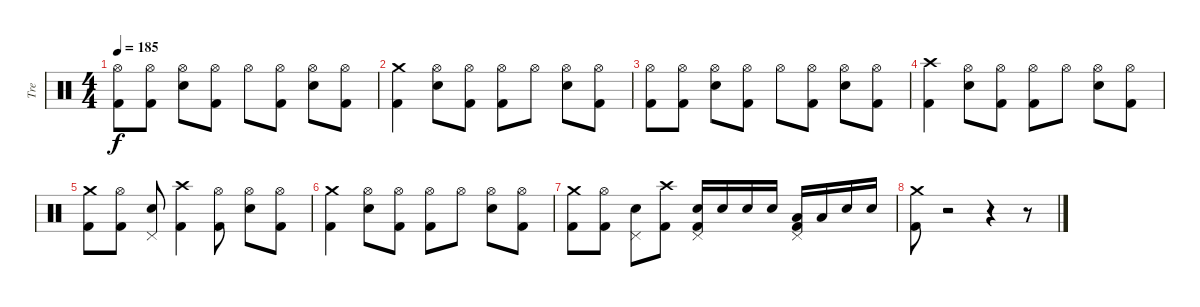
\track ("Tre" "Tre") {instrument percussion}
\staff {score}
\articulation defaults
\ts (4 4)
\tempo 185
\clef neutral
\ks c
("Hi-Hat (open)" "Kick (hit) 2").8{dy f} ("Hi-Hat (open)" "Kick (hit) 2").8 ("Hi-Hat (open)" "Snare (hit) 2").8 ("Hi-Hat (open)" "Kick (hit) 2").8 "Hi-Hat (open)".8 ("Hi-Hat (open)" "Kick (hit) 2").8 ("Hi-Hat (open)" "Snare (hit) 2").8 ("Hi-Hat (open)" "Kick (hit) 2").8 |
("Crash medium (hit)" "Kick (hit) 2").4 ("Hi-Hat (open)" "Snare (hit) 2").8 ("Hi-Hat (open)" "Kick (hit) 2").8 ("Hi-Hat (open)" "Kick (hit) 2").8 "Hi-Hat (open)".8 ("Hi-Hat (open)" "Snare (hit) 2").8 ("Hi-Hat (open)" "Kick (hit) 2").8 |
("Hi-Hat (open)" "Kick (hit) 2").8 ("Hi-Hat (open)" "Kick (hit) 2").8 ("Hi-Hat (open)" "Snare (hit) 2").8 ("Hi-Hat (open)" "Kick (hit) 2").8 "Hi-Hat (open)".8 ("Hi-Hat (open)" "Kick (hit) 2").8 ("Hi-Hat (open)" "Snare (hit) 2").8 ("Hi-Hat (open)" "Kick (hit) 2").8 |
("Crash high (hit)" "Kick (hit) 2").4 ("Hi-Hat (open)" "Snare (hit) 2").8 ("Hi-Hat (open)" "Kick (hit) 2").8 ("Hi-Hat (open)" "Kick (hit) 2").8 "Hi-Hat (open)".8 ("Hi-Hat (open)" "Snare (hit) 2").8 ("Hi-Hat (open)" "Kick (hit) 2").8 |
("Crash medium (hit)" "Kick (hit) 2").8 ("Hi-Hat (open)" "Kick (hit) 2").8 ("Snare (hit) 2" "Pedal Hi-Hat (hit)").8 ("Crash high (hit)" "Kick (hit) 2").4 ("Hi-Hat (open)" "Kick (hit) 2").8 ("Hi-Hat (open)" "Snare (hit) 2").8 ("Hi-Hat (open)" "Kick (hit) 2").8 |
("Crash medium (hit)" "Kick (hit) 2").4 ("Hi-Hat (open)" "Snare (hit) 2").8 ("Hi-Hat (open)" "Kick (hit) 2").8 ("Hi-Hat (open)" "Kick (hit) 2").8 "Hi-Hat (open)".8 ("Hi-Hat (open)" "Snare (hit) 2").8 ("Hi-Hat (open)" "Kick (hit) 2").8 |
("Crash medium (hit)" "Kick (hit) 2").8 ("Hi-Hat (open)" "Kick (hit) 2").8 ("Snare (hit) 2" "Pedal Hi-Hat (hit)").8 ("Crash high (hit)" "Kick (hit) 2").8 ("Snare (hit) 2" "Pedal Hi-Hat (hit)" "Kick (hit) 2").16 "Snare (hit) 2".16 "Snare (hit) 2".16 "Snare (hit) 2".16 ("Low Tom (hit)" "Pedal Hi-Hat (hit)" "Kick (hit) 2").16 "Low Tom (hit)".16 "Snare (hit) 2".16 "Snare (hit) 2".16 |
("Crash medium (hit)" "Kick (hit) 2").8 r.2 r.4 r.8
